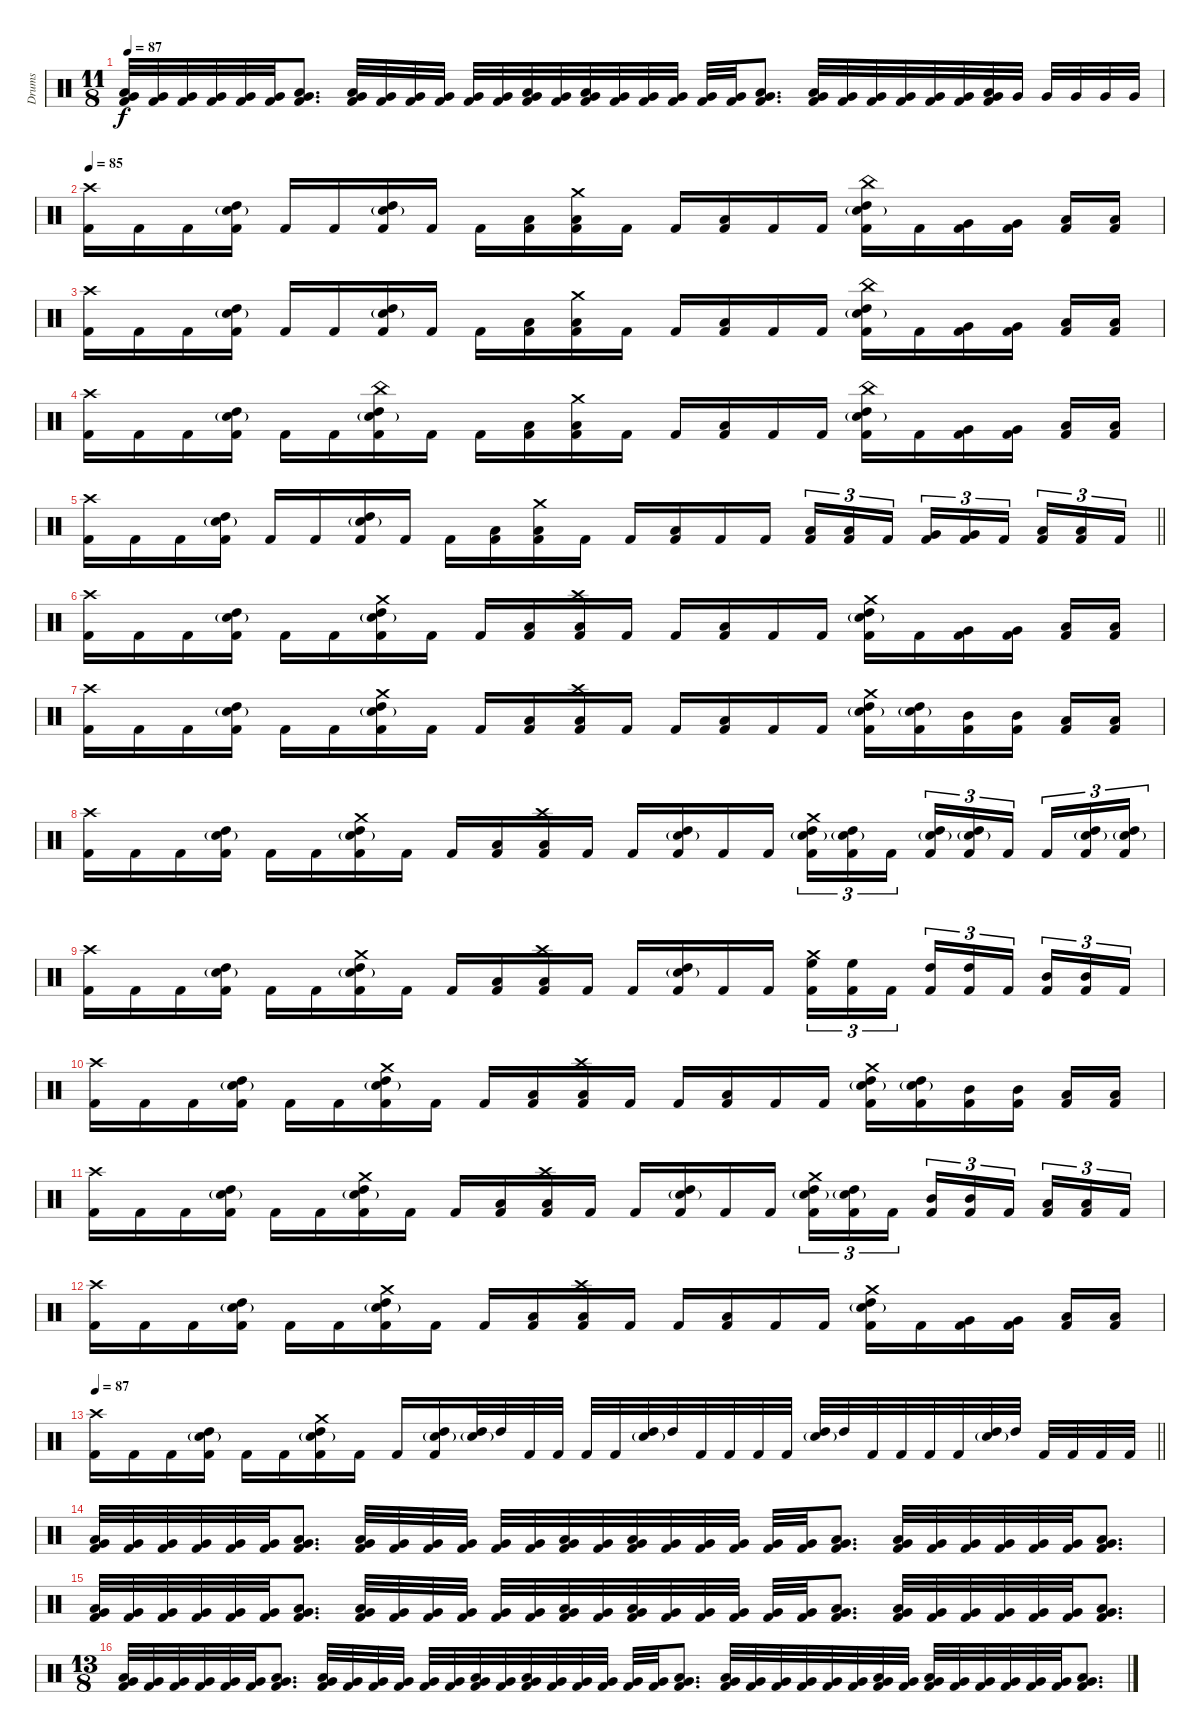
\track ("Drums" "Drums") {instrument percussion}
\staff {score}
\articulation defaults
\ts (11 8)
\tempo 87
\clef neutral
\ks c
("Very Low Tom (hit)" "Low Floor Tom (hit)" "Kick (hit) 2").32{dy f} ("Very Low Tom (hit)" "Kick (hit) 2").32 ("Very Low Tom (hit)" "Kick (hit) 2").32 ("Very Low Tom (hit)" "Kick (hit) 2").32 ("Very Low Tom (hit)" "Kick (hit) 2").32 ("Very Low Tom (hit)" "Kick (hit) 2").32 ("Very Low Tom (hit)" "Low Floor Tom (hit)" "Kick (hit) 2").8{d} ("Very Low Tom (hit)" "Low Floor Tom (hit)" "Kick (hit) 2").32 ("Very Low Tom (hit)" "Kick (hit) 2").32 ("Very Low Tom (hit)" "Kick (hit) 2").32 ("Very Low Tom (hit)" "Kick (hit) 2").32 ("Very Low Tom (hit)" "Kick (hit) 2").32 ("Very Low Tom (hit)" "Kick (hit) 2").32 ("Very Low Tom (hit)" "Low Floor Tom (hit)" "Kick (hit) 2").32 ("Very Low Tom (hit)" "Kick (hit) 2").32 ("Very Low Tom (hit)" "Low Floor Tom (hit)" "Kick (hit) 2").32 ("Very Low Tom (hit)" "Kick (hit) 2").32 ("Very Low Tom (hit)" "Kick (hit) 2").32 ("Very Low Tom (hit)" "Kick (hit) 2").32 ("Very Low Tom (hit)" "Kick (hit) 2").32 ("Very Low Tom (hit)" "Kick (hit) 2").32 ("Very Low Tom (hit)" "Low Floor Tom (hit)" "Kick (hit) 2").8{d} ("Very Low Tom (hit)" "Low Floor Tom (hit)" "Kick (hit) 2").32 ("Very Low Tom (hit)" "Kick (hit) 2").32 ("Very Low Tom (hit)" "Kick (hit) 2").32 ("Very Low Tom (hit)" "Kick (hit) 2").32 ("Very Low Tom (hit)" "Kick (hit) 2").32 ("Very Low Tom (hit)" "Kick (hit) 2").32 ("Very Low Tom (hit)" "Low Floor Tom (hit)" "Kick (hit) 2").32 "Very Low Tom (hit)".32 "Very Low Tom (hit)".32 "Very Low Tom (hit)".32 "Very Low Tom (hit)".32 "Very Low Tom (hit)".32 |
\tempo 85
("Crash high (hit)" "Kick (hit) 2").16 "Kick (hit) 2".16 "Kick (hit) 2".16 ("High Tom (hit)" "Snare (hit) 2"{g} "Kick (hit) 2").16 "Kick (hit) 2".16 "Kick (hit) 2".16 ("High Tom (hit)" "Snare (hit) 2"{g} "Kick (hit) 2").16 "Kick (hit) 2".16 "Kick (hit) 2".16 ("Low Tom (hit)" "Kick (hit) 2").16 ("Crash medium (hit)" "Low Tom (hit)" "Kick (hit) 2").16 "Kick (hit) 2".16 "Kick (hit) 2".16 ("Low Tom (hit)" "Kick (hit) 2").16 "Kick (hit) 2".16 "Kick (hit) 2".16 ("China (hit)" "High Tom (hit)" "Snare (hit) 2"{g} "Kick (hit) 2").16 "Kick (hit) 2".16 ("Very Low Tom (hit)" "Kick (hit) 2").16 ("Very Low Tom (hit)" "Kick (hit) 2").16 ("Low Floor Tom (hit)" "Kick (hit) 2").16 ("Low Floor Tom (hit)" "Kick (hit) 2").16 |
("Crash high (hit)" "Kick (hit) 2").16 "Kick (hit) 2".16 "Kick (hit) 2".16 ("High Tom (hit)" "Snare (hit) 2"{g} "Kick (hit) 2").16 "Kick (hit) 2".16 "Kick (hit) 2".16 ("High Tom (hit)" "Snare (hit) 2"{g} "Kick (hit) 2").16 "Kick (hit) 2".16 "Kick (hit) 2".16 ("Low Tom (hit)" "Kick (hit) 2").16 ("Crash medium (hit)" "Low Tom (hit)" "Kick (hit) 2").16 "Kick (hit) 2".16 "Kick (hit) 2".16 ("Low Tom (hit)" "Kick (hit) 2").16 "Kick (hit) 2".16 "Kick (hit) 2".16 ("China (hit)" "High Tom (hit)" "Snare (hit) 2"{g} "Kick (hit) 2").16 "Kick (hit) 2".16 ("Very Low Tom (hit)" "Kick (hit) 2").16 ("Very Low Tom (hit)" "Kick (hit) 2").16 ("Low Floor Tom (hit)" "Kick (hit) 2").16 ("Low Floor Tom (hit)" "Kick (hit) 2").16 |
("Crash high (hit)" "Kick (hit) 2").16 "Kick (hit) 2".16 "Kick (hit) 2".16 ("High Tom (hit)" "Snare (hit) 2"{g} "Kick (hit) 2").16 "Kick (hit) 2".16 "Kick (hit) 2".16 ("China (hit)" "High Tom (hit)" "Snare (hit) 2"{g} "Kick (hit) 2").16 "Kick (hit) 2".16 "Kick (hit) 2".16 ("Low Tom (hit)" "Kick (hit) 2").16 ("Crash medium (hit)" "Low Tom (hit)" "Kick (hit) 2").16 "Kick (hit) 2".16 "Kick (hit) 2".16 ("Low Tom (hit)" "Kick (hit) 2").16 "Kick (hit) 2".16 "Kick (hit) 2".16 ("China (hit)" "High Tom (hit)" "Snare (hit) 2"{g} "Kick (hit) 2").16 "Kick (hit) 2".16 ("Very Low Tom (hit)" "Kick (hit) 2").16 ("Very Low Tom (hit)" "Kick (hit) 2").16 ("Low Floor Tom (hit)" "Kick (hit) 2").16 ("Low Floor Tom (hit)" "Kick (hit) 2").16 |
\barLineRight lightlight
("Crash high (hit)" "Kick (hit) 2").16 "Kick (hit) 2".16 "Kick (hit) 2".16 ("High Tom (hit)" "Snare (hit) 2"{g} "Kick (hit) 2").16 "Kick (hit) 2".16 "Kick (hit) 2".16 ("High Tom (hit)" "Snare (hit) 2"{g} "Kick (hit) 2").16 "Kick (hit) 2".16 "Kick (hit) 2".16 ("Low Tom (hit)" "Kick (hit) 2").16 ("Crash medium (hit)" "Low Tom (hit)" "Kick (hit) 2").16 "Kick (hit) 2".16 "Kick (hit) 2".16 ("Low Tom (hit)" "Kick (hit) 2").16 "Kick (hit) 2".16 "Kick (hit) 2".16 ("Low Tom (hit)" "Kick (hit) 2").16{tu (3 2)} ("Low Tom (hit)" "Kick (hit) 2").16{tu (3 2)} "Kick (hit) 2".16{tu (3 2)} ("Very Low Tom (hit)" "Kick (hit) 2").16{tu (3 2)} ("Very Low Tom (hit)" "Kick (hit) 2").16{tu (3 2)} "Kick (hit) 2".16{tu (3 2)} ("Low Floor Tom (hit)" "Kick (hit) 2").16{tu (3 2)} ("Low Floor Tom (hit)" "Kick (hit) 2").16{tu (3 2)} "Kick (hit) 2".16{tu (3 2)} |
\section ("" "")
("Crash high (hit)" "Kick (hit) 2").16 "Kick (hit) 2".16 "Kick (hit) 2".16 ("High Tom (hit)" "Snare (hit) 2"{g} "Kick (hit) 2").16 "Kick (hit) 2".16 "Kick (hit) 2".16 ("Crash medium (hit)" "High Tom (hit)" "Snare (hit) 2"{g} "Kick (hit) 2").16 "Kick (hit) 2".16 "Kick (hit) 2".16 ("Low Tom (hit)" "Kick (hit) 2").16 ("Crash high (hit)" "Low Tom (hit)" "Kick (hit) 2").16 "Kick (hit) 2".16 "Kick (hit) 2".16 ("Low Tom (hit)" "Kick (hit) 2").16 "Kick (hit) 2".16 "Kick (hit) 2".16 ("Crash medium (hit)" "High Tom (hit)" "Snare (hit) 2"{g} "Kick (hit) 2").16 "Kick (hit) 2".16 ("Very Low Tom (hit)" "Kick (hit) 2").16 ("Very Low Tom (hit)" "Kick (hit) 2").16 ("Low Floor Tom (hit)" "Kick (hit) 2").16 ("Low Floor Tom (hit)" "Kick (hit) 2").16 |
("Crash high (hit)" "Kick (hit) 2").16 "Kick (hit) 2".16 "Kick (hit) 2".16 ("High Tom (hit)" "Snare (hit) 2"{g} "Kick (hit) 2").16 "Kick (hit) 2".16 "Kick (hit) 2".16 ("Crash medium (hit)" "High Tom (hit)" "Snare (hit) 2"{g} "Kick (hit) 2").16 "Kick (hit) 2".16 "Kick (hit) 2".16 ("Low Tom (hit)" "Kick (hit) 2").16 ("Crash high (hit)" "Low Tom (hit)" "Kick (hit) 2").16 "Kick (hit) 2".16 "Kick (hit) 2".16 ("Low Tom (hit)" "Kick (hit) 2").16 "Kick (hit) 2".16 "Kick (hit) 2".16 ("Crash medium (hit)" "High Tom (hit)" "Snare (hit) 2"{g} "Kick (hit) 2").16 ("High Tom (hit)" "Snare (hit) 2"{g} "Kick (hit) 2").16 ("Mid Tom (hit)" "Kick (hit) 2").16 ("Mid Tom (hit)" "Kick (hit) 2").16 ("Low Tom (hit)" "Kick (hit) 2").16 ("Low Tom (hit)" "Kick (hit) 2").16 |
("Crash high (hit)" "Kick (hit) 2").16 "Kick (hit) 2".16 "Kick (hit) 2".16 ("High Tom (hit)" "Snare (hit) 2"{g} "Kick (hit) 2").16 "Kick (hit) 2".16 "Kick (hit) 2".16 ("Crash medium (hit)" "High Tom (hit)" "Snare (hit) 2"{g} "Kick (hit) 2").16 "Kick (hit) 2".16 "Kick (hit) 2".16 ("Low Tom (hit)" "Kick (hit) 2").16 ("Crash high (hit)" "Low Tom (hit)" "Kick (hit) 2").16 "Kick (hit) 2".16 "Kick (hit) 2".16 ("High Tom (hit)" "Snare (hit) 2"{g} "Kick (hit) 2").16 "Kick (hit) 2".16 "Kick (hit) 2".16 ("Crash medium (hit)" "High Tom (hit)" "Snare (hit) 2"{g} "Kick (hit) 2").16{tu (3 2)} ("High Tom (hit)" "Snare (hit) 2"{g} "Kick (hit) 2").16{tu (3 2)} "Kick (hit) 2".16{tu (3 2)} ("High Tom (hit)" "Snare (hit) 2"{g} "Kick (hit) 2").16{tu (3 2)} ("High Tom (hit)" "Snare (hit) 2"{g} "Kick (hit) 2").16{tu (3 2)} "Kick (hit) 2".16{tu (3 2)} "Kick (hit) 2".16{tu (3 2)} ("High Tom (hit)" "Snare (hit) 2"{g} "Kick (hit) 2").16{tu (3 2)} ("High Tom (hit)" "Snare (hit) 2"{g} "Kick (hit) 2").16{tu (3 2)} |
("Crash high (hit)" "Kick (hit) 2").16 "Kick (hit) 2".16 "Kick (hit) 2".16 ("High Tom (hit)" "Snare (hit) 2"{g} "Kick (hit) 2").16 "Kick (hit) 2".16 "Kick (hit) 2".16 ("Crash medium (hit)" "High Tom (hit)" "Snare (hit) 2"{g} "Kick (hit) 2").16 "Kick (hit) 2".16 "Kick (hit) 2".16 ("Low Tom (hit)" "Kick (hit) 2").16 ("Crash high (hit)" "Low Tom (hit)" "Kick (hit) 2").16 "Kick (hit) 2".16 "Kick (hit) 2".16 ("High Tom (hit)" "Snare (hit) 2"{g} "Kick (hit) 2").16 "Kick (hit) 2".16 "Kick (hit) 2".16 ("Crash medium (hit)" "High Floor Tom (hit)" "Kick (hit) 2").16{tu (3 2)} ("High Floor Tom (hit)" "Kick (hit) 2").16{tu (3 2)} "Kick (hit) 2".16{tu (3 2)} ("High Tom (hit)" "Kick (hit) 2").16{tu (3 2)} ("High Tom (hit)" "Kick (hit) 2").16{tu (3 2)} "Kick (hit) 2".16{tu (3 2)} ("Mid Tom (hit)" "Kick (hit) 2").16{tu (3 2)} ("Mid Tom (hit)" "Kick (hit) 2").16{tu (3 2)} "Kick (hit) 2".16{tu (3 2)} |
("Crash high (hit)" "Kick (hit) 2").16 "Kick (hit) 2".16 "Kick (hit) 2".16 ("High Tom (hit)" "Snare (hit) 2"{g} "Kick (hit) 2").16 "Kick (hit) 2".16 "Kick (hit) 2".16 ("Crash medium (hit)" "High Tom (hit)" "Snare (hit) 2"{g} "Kick (hit) 2").16 "Kick (hit) 2".16 "Kick (hit) 2".16 ("Low Tom (hit)" "Kick (hit) 2").16 ("Crash high (hit)" "Low Tom (hit)" "Kick (hit) 2").16 "Kick (hit) 2".16 "Kick (hit) 2".16 ("Low Tom (hit)" "Kick (hit) 2").16 "Kick (hit) 2".16 "Kick (hit) 2".16 ("Crash medium (hit)" "High Tom (hit)" "Snare (hit) 2"{g} "Kick (hit) 2").16 ("High Tom (hit)" "Snare (hit) 2"{g} "Kick (hit) 2").16 ("Mid Tom (hit)" "Kick (hit) 2").16 ("Mid Tom (hit)" "Kick (hit) 2").16 ("Low Tom (hit)" "Kick (hit) 2").16 ("Low Tom (hit)" "Kick (hit) 2").16 |
("Crash high (hit)" "Kick (hit) 2").16 "Kick (hit) 2".16 "Kick (hit) 2".16 ("High Tom (hit)" "Snare (hit) 2"{g} "Kick (hit) 2").16 "Kick (hit) 2".16 "Kick (hit) 2".16 ("Crash medium (hit)" "High Tom (hit)" "Snare (hit) 2"{g} "Kick (hit) 2").16 "Kick (hit) 2".16 "Kick (hit) 2".16 ("Low Tom (hit)" "Kick (hit) 2").16 ("Crash high (hit)" "Low Tom (hit)" "Kick (hit) 2").16 "Kick (hit) 2".16 "Kick (hit) 2".16 ("High Tom (hit)" "Snare (hit) 2"{g} "Kick (hit) 2").16 "Kick (hit) 2".16 "Kick (hit) 2".16 ("Crash medium (hit)" "High Tom (hit)" "Snare (hit) 2"{g} "Kick (hit) 2").16{tu (3 2)} ("High Tom (hit)" "Snare (hit) 2"{g} "Kick (hit) 2").16{tu (3 2)} "Kick (hit) 2".16{tu (3 2)} ("Mid Tom (hit)" "Kick (hit) 2").16{tu (3 2)} ("Mid Tom (hit)" "Kick (hit) 2").16{tu (3 2)} "Kick (hit) 2".16{tu (3 2)} ("Low Tom (hit)" "Kick (hit) 2").16{tu (3 2)} ("Low Tom (hit)" "Kick (hit) 2").16{tu (3 2)} "Kick (hit) 2".16{tu (3 2)} |
("Crash high (hit)" "Kick (hit) 2").16 "Kick (hit) 2".16 "Kick (hit) 2".16 ("High Tom (hit)" "Snare (hit) 2"{g} "Kick (hit) 2").16 "Kick (hit) 2".16 "Kick (hit) 2".16 ("Crash medium (hit)" "High Tom (hit)" "Snare (hit) 2"{g} "Kick (hit) 2").16 "Kick (hit) 2".16 "Kick (hit) 2".16 ("Low Tom (hit)" "Kick (hit) 2").16 ("Crash high (hit)" "Low Tom (hit)" "Kick (hit) 2").16 "Kick (hit) 2".16 "Kick (hit) 2".16 ("Low Tom (hit)" "Kick (hit) 2").16 "Kick (hit) 2".16 "Kick (hit) 2".16 ("Crash medium (hit)" "High Tom (hit)" "Snare (hit) 2"{g} "Kick (hit) 2").16 "Kick (hit) 2".16 ("Very Low Tom (hit)" "Kick (hit) 2").16 ("Very Low Tom (hit)" "Kick (hit) 2").16 ("Low Floor Tom (hit)" "Kick (hit) 2").16 ("Low Floor Tom (hit)" "Kick (hit) 2").16 |
\tempo 87
\barLineRight lightlight
("Crash high (hit)" "Kick (hit) 2").16 "Kick (hit) 2".16 "Kick (hit) 2".16 ("High Tom (hit)" "Snare (hit) 2"{g} "Kick (hit) 2").16 "Kick (hit) 2".16 "Kick (hit) 2".16 ("Crash medium (hit)" "High Tom (hit)" "Snare (hit) 2"{g} "Kick (hit) 2").16 "Kick (hit) 2".16 "Kick (hit) 2".16 ("High Tom (hit)" "Snare (hit) 2"{g} "Kick (hit) 2").16 ("High Tom (hit)" "Snare (hit) 2"{g}).32 "High Tom (hit)".32 "Kick (hit) 2".32 "Kick (hit) 2".32 "Kick (hit) 2".32 "Kick (hit) 2".32 ("High Tom (hit)" "Snare (hit) 2"{g}).32 "High Tom (hit)".32 "Kick (hit) 2".32 "Kick (hit) 2".32 "Kick (hit) 2".32 "Kick (hit) 2".32 ("High Tom (hit)" "Snare (hit) 2"{g}).32 "High Tom (hit)".32 "Kick (hit) 2".32 "Kick (hit) 2".32 "Kick (hit) 2".32 "Kick (hit) 2".32 ("High Tom (hit)" "Snare (hit) 2"{g}).32 "High Tom (hit)".32 "Kick (hit) 2".32 "Kick (hit) 2".32 "Kick (hit) 2".32 "Kick (hit) 2".32 |
\section ("" "")
("Very Low Tom (hit)" "Low Floor Tom (hit)" "Kick (hit) 2").32 ("Very Low Tom (hit)" "Kick (hit) 2").32 ("Very Low Tom (hit)" "Kick (hit) 2").32 ("Very Low Tom (hit)" "Kick (hit) 2").32 ("Very Low Tom (hit)" "Kick (hit) 2").32 ("Very Low Tom (hit)" "Kick (hit) 2").32 ("Very Low Tom (hit)" "Low Floor Tom (hit)" "Kick (hit) 2").8{d} ("Very Low Tom (hit)" "Low Floor Tom (hit)" "Kick (hit) 2").32 ("Very Low Tom (hit)" "Kick (hit) 2").32 ("Very Low Tom (hit)" "Kick (hit) 2").32 ("Very Low Tom (hit)" "Kick (hit) 2").32 ("Very Low Tom (hit)" "Kick (hit) 2").32 ("Very Low Tom (hit)" "Kick (hit) 2").32 ("Very Low Tom (hit)" "Low Floor Tom (hit)" "Kick (hit) 2").32 ("Very Low Tom (hit)" "Kick (hit) 2").32 ("Very Low Tom (hit)" "Low Floor Tom (hit)" "Kick (hit) 2").32 ("Very Low Tom (hit)" "Kick (hit) 2").32 ("Very Low Tom (hit)" "Kick (hit) 2").32 ("Very Low Tom (hit)" "Kick (hit) 2").32 ("Very Low Tom (hit)" "Kick (hit) 2").32 ("Very Low Tom (hit)" "Kick (hit) 2").32 ("Very Low Tom (hit)" "Low Floor Tom (hit)" "Kick (hit) 2").8{d} ("Very Low Tom (hit)" "Low Floor Tom (hit)" "Kick (hit) 2").32 ("Very Low Tom (hit)" "Kick (hit) 2").32 ("Very Low Tom (hit)" "Kick (hit) 2").32 ("Very Low Tom (hit)" "Kick (hit) 2").32 ("Very Low Tom (hit)" "Kick (hit) 2").32 ("Very Low Tom (hit)" "Kick (hit) 2").32 ("Very Low Tom (hit)" "Low Floor Tom (hit)" "Kick (hit) 2").8{d} |
("Very Low Tom (hit)" "Low Floor Tom (hit)" "Kick (hit) 2").32 ("Very Low Tom (hit)" "Kick (hit) 2").32 ("Very Low Tom (hit)" "Kick (hit) 2").32 ("Very Low Tom (hit)" "Kick (hit) 2").32 ("Very Low Tom (hit)" "Kick (hit) 2").32 ("Very Low Tom (hit)" "Kick (hit) 2").32 ("Very Low Tom (hit)" "Low Floor Tom (hit)" "Kick (hit) 2").8{d} ("Very Low Tom (hit)" "Low Floor Tom (hit)" "Kick (hit) 2").32 ("Very Low Tom (hit)" "Kick (hit) 2").32 ("Very Low Tom (hit)" "Kick (hit) 2").32 ("Very Low Tom (hit)" "Kick (hit) 2").32 ("Very Low Tom (hit)" "Kick (hit) 2").32 ("Very Low Tom (hit)" "Kick (hit) 2").32 ("Very Low Tom (hit)" "Low Floor Tom (hit)" "Kick (hit) 2").32 ("Very Low Tom (hit)" "Kick (hit) 2").32 ("Very Low Tom (hit)" "Low Floor Tom (hit)" "Kick (hit) 2").32 ("Very Low Tom (hit)" "Kick (hit) 2").32 ("Very Low Tom (hit)" "Kick (hit) 2").32 ("Very Low Tom (hit)" "Kick (hit) 2").32 ("Very Low Tom (hit)" "Kick (hit) 2").32 ("Very Low Tom (hit)" "Kick (hit) 2").32 ("Very Low Tom (hit)" "Low Floor Tom (hit)" "Kick (hit) 2").8{d} ("Very Low Tom (hit)" "Low Floor Tom (hit)" "Kick (hit) 2").32 ("Very Low Tom (hit)" "Kick (hit) 2").32 ("Very Low Tom (hit)" "Kick (hit) 2").32 ("Very Low Tom (hit)" "Kick (hit) 2").32 ("Very Low Tom (hit)" "Kick (hit) 2").32 ("Very Low Tom (hit)" "Kick (hit) 2").32 ("Very Low Tom (hit)" "Low Floor Tom (hit)" "Kick (hit) 2").8{d} |
\ts (13 8)
("Very Low Tom (hit)" "Low Floor Tom (hit)" "Kick (hit) 2").32 ("Very Low Tom (hit)" "Kick (hit) 2").32 ("Very Low Tom (hit)" "Kick (hit) 2").32 ("Very Low Tom (hit)" "Kick (hit) 2").32 ("Very Low Tom (hit)" "Kick (hit) 2").32 ("Very Low Tom (hit)" "Kick (hit) 2").32 ("Very Low Tom (hit)" "Low Floor Tom (hit)" "Kick (hit) 2").8{d} ("Very Low Tom (hit)" "Low Floor Tom (hit)" "Kick (hit) 2").32 ("Very Low Tom (hit)" "Kick (hit) 2").32 ("Very Low Tom (hit)" "Kick (hit) 2").32 ("Very Low Tom (hit)" "Kick (hit) 2").32 ("Very Low Tom (hit)" "Kick (hit) 2").32 ("Very Low Tom (hit)" "Kick (hit) 2").32 ("Very Low Tom (hit)" "Low Floor Tom (hit)" "Kick (hit) 2").32 ("Very Low Tom (hit)" "Kick (hit) 2").32 ("Very Low Tom (hit)" "Low Floor Tom (hit)" "Kick (hit) 2").32 ("Very Low Tom (hit)" "Kick (hit) 2").32 ("Very Low Tom (hit)" "Kick (hit) 2").32 ("Very Low Tom (hit)" "Kick (hit) 2").32 ("Very Low Tom (hit)" "Kick (hit) 2").32 ("Very Low Tom (hit)" "Kick (hit) 2").32 ("Very Low Tom (hit)" "Low Floor Tom (hit)" "Kick (hit) 2").8{d} ("Very Low Tom (hit)" "Low Floor Tom (hit)" "Kick (hit) 2").32 ("Very Low Tom (hit)" "Kick (hit) 2").32 ("Very Low Tom (hit)" "Kick (hit) 2").32 ("Very Low Tom (hit)" "Kick (hit) 2").32 ("Very Low Tom (hit)" "Kick (hit) 2").32 ("Very Low Tom (hit)" "Kick (hit) 2").32 ("Very Low Tom (hit)" "Low Floor Tom (hit)" "Kick (hit) 2").32 ("Very Low Tom (hit)" "Kick (hit) 2").32 ("Very Low Tom (hit)" "Low Floor Tom (hit)" "Kick (hit) 2").32 ("Very Low Tom (hit)" "Kick (hit) 2").32 ("Very Low Tom (hit)" "Kick (hit) 2").32 ("Very Low Tom (hit)" "Kick (hit) 2").32 ("Very Low Tom (hit)" "Kick (hit) 2").32 ("Very Low Tom (hit)" "Kick (hit) 2").32 ("Very Low Tom (hit)" "Low Floor Tom (hit)" "Kick (hit) 2").8{d}
